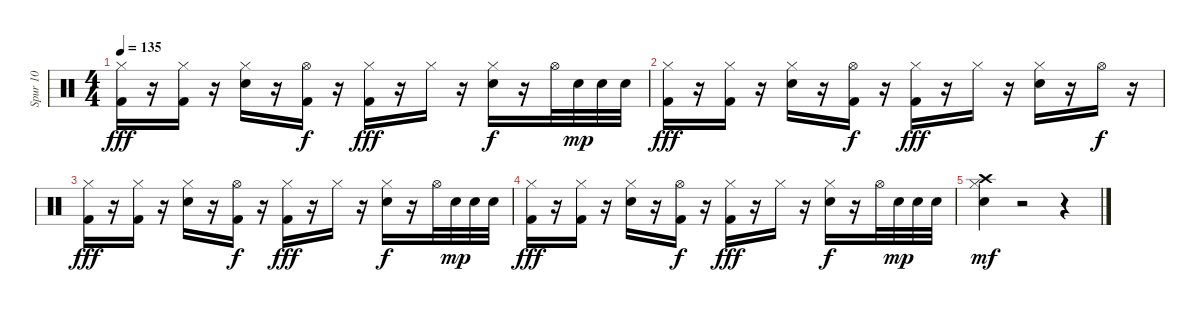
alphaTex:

\track ("Spur 10" "Spur 10") {instrument percussion}
\staff {score}
\articulation defaults
\ts (4 4)
\tempo 135
\clef neutral
\ks c
("Hi-Hat (closed)" "Kick (hit) 2").16{dy fff} r.16 ("Hi-Hat (closed)" "Kick (hit) 2").16 r.16 ("Hi-Hat (closed)" "Electric Snare (hit)").16 r.16 ("Hi-Hat (open)" "Kick (hit) 2").16{dy f} r.16 ("Hi-Hat (closed)" "Kick (hit) 2").16{dy fff} r.16 "Hi-Hat (closed)".16 r.16 ("Electric Snare (hit)" "Hi-Hat (closed)").16{dy f} r.16 "Hi-Hat (open)".32 "Snare (hit) 2".32{dy mp} "Snare (hit) 2".32 "Snare (hit) 2".32 |
("Hi-Hat (closed)" "Kick (hit) 2").16{dy fff} r.16 ("Hi-Hat (closed)" "Kick (hit) 2").16 r.16 ("Hi-Hat (closed)" "Electric Snare (hit)").16 r.16 ("Hi-Hat (open)" "Kick (hit) 2").16{dy f} r.16 ("Hi-Hat (closed)" "Kick (hit) 2").16{dy fff} r.16 "Hi-Hat (closed)".16 r.16 ("Hi-Hat (closed)" "Electric Snare (hit)").16 r.16 "Hi-Hat (open)".16{dy f} r.16 |
("Hi-Hat (closed)" "Kick (hit) 2").16{dy fff} r.16 ("Hi-Hat (closed)" "Kick (hit) 2").16 r.16 ("Hi-Hat (closed)" "Electric Snare (hit)").16 r.16 ("Hi-Hat (open)" "Kick (hit) 2").16{dy f} r.16 ("Hi-Hat (closed)" "Kick (hit) 2").16{dy fff} r.16 "Hi-Hat (closed)".16 r.16 ("Electric Snare (hit)" "Hi-Hat (closed)").16{dy f} r.16 "Hi-Hat (open)".32 "Snare (hit) 2".32{dy mp} "Snare (hit) 2".32 "Snare (hit) 2".32 |
("Hi-Hat (closed)" "Kick (hit) 2").16{dy fff} r.16 ("Hi-Hat (closed)" "Kick (hit) 2").16 r.16 ("Hi-Hat (closed)" "Electric Snare (hit)").16 r.16 ("Hi-Hat (open)" "Kick (hit) 2").16{dy f} r.16 ("Hi-Hat (closed)" "Kick (hit) 2").16{dy fff} r.16 "Hi-Hat (closed)".16 r.16 ("Electric Snare (hit)" "Hi-Hat (closed)").16{dy f} r.16 "Hi-Hat (open)".32 "Snare (hit) 2".32{dy mp} "Snare (hit) 2".32 "Snare (hit) 2".32 |
("Hi-Hat (closed)" "Crash high (hit)" "Electric Snare (hit)").4{dy mf} r.2 r.4
